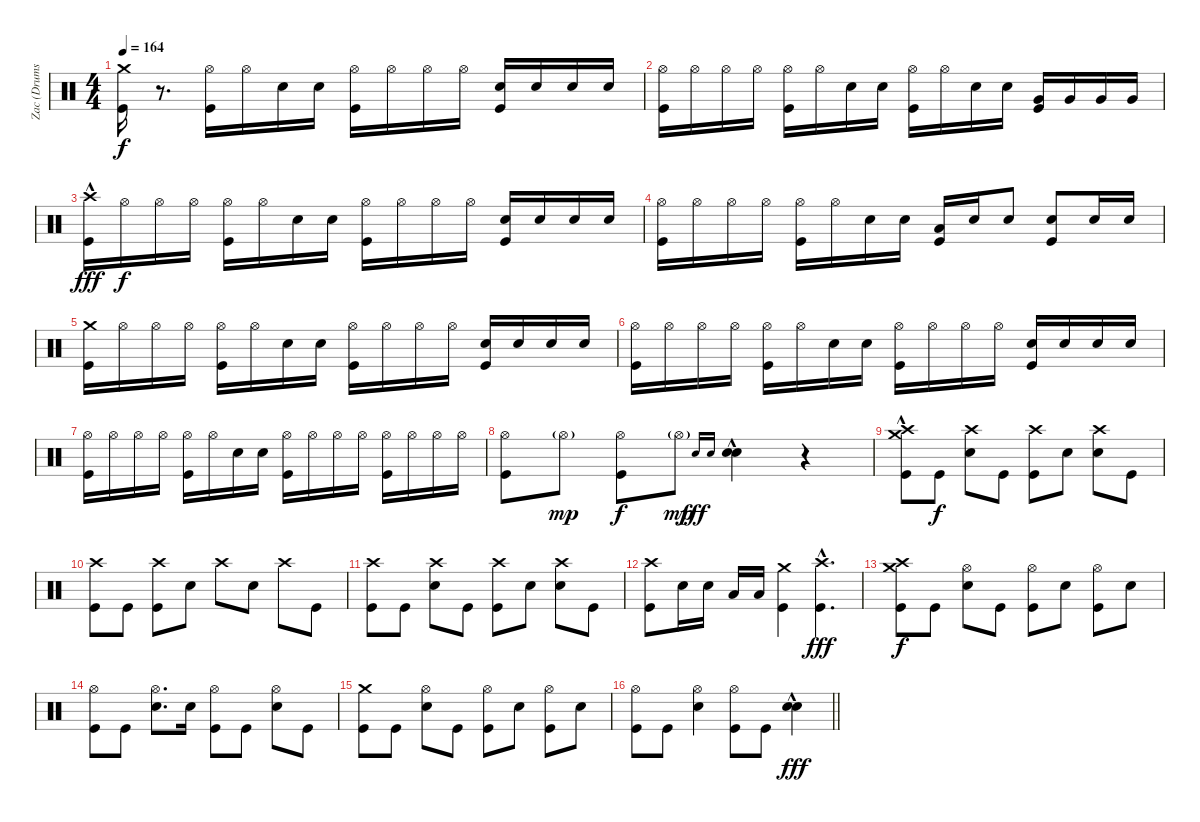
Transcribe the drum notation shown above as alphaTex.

\track ("Zac (Drums)" "Zac (Drums") {instrument percussion}
\staff {score}
\articulation defaults
\ts (4 4)
\tempo 164
\clef neutral
\ks c
("Crash medium (hit)" "Kick (hit)").16{dy f} r.8{d} ("Hi-Hat (open)" "Kick (hit)").16 "Hi-Hat (open)".16 "Electric Snare (hit)".16 "Electric Snare (hit)".16 ("Hi-Hat (open)" "Kick (hit)").16 "Hi-Hat (open)".16 "Hi-Hat (open)".16 "Hi-Hat (open)".16 ("Electric Snare (hit)" "Kick (hit)").16 "Electric Snare (hit)".16 "Electric Snare (hit)".16 "Electric Snare (hit)".16 |
("Hi-Hat (open)" "Kick (hit)").16 "Hi-Hat (open)".16 "Hi-Hat (open)".16 "Hi-Hat (open)".16 ("Hi-Hat (open)" "Kick (hit)").16 "Hi-Hat (open)".16 "Electric Snare (hit)".16 "Electric Snare (hit)".16 ("Hi-Hat (open)" "Kick (hit)").16 "Hi-Hat (open)".16 "Electric Snare (hit)".16 "Electric Snare (hit)".16 ("Very Low Tom (hit)" "Kick (hit)").16 "Very Low Tom (hit)".16 "Very Low Tom (hit)".16 "Very Low Tom (hit)".16 |
("Crash high (hit)"{hac} "Kick (hit)").16{dy fff} "Hi-Hat (open)".16{dy f} "Hi-Hat (open)".16 "Hi-Hat (open)".16 ("Hi-Hat (open)" "Kick (hit)").16 "Hi-Hat (open)".16 "Electric Snare (hit)".16 "Electric Snare (hit)".16 ("Hi-Hat (open)" "Kick (hit)").16 "Hi-Hat (open)".16 "Hi-Hat (open)".16 "Hi-Hat (open)".16 ("Electric Snare (hit)" "Kick (hit)").16 "Electric Snare (hit)".16 "Electric Snare (hit)".16 "Electric Snare (hit)".16 |
("Hi-Hat (open)" "Kick (hit)").16 "Hi-Hat (open)".16 "Hi-Hat (open)".16 "Hi-Hat (open)".16 ("Hi-Hat (open)" "Kick (hit)").16 "Hi-Hat (open)".16 "Electric Snare (hit)".16 "Electric Snare (hit)".16 ("Low Tom (hit)" "Kick (hit)").16 "Electric Snare (hit)".16 "Electric Snare (hit)".8 ("Electric Snare (hit)" "Kick (hit)").8 "Electric Snare (hit)".16 "Electric Snare (hit)".16 |
("Crash medium (hit)" "Kick (hit)").16 "Hi-Hat (open)".16 "Hi-Hat (open)".16 "Hi-Hat (open)".16 ("Hi-Hat (open)" "Kick (hit)").16 "Hi-Hat (open)".16 "Electric Snare (hit)".16 "Electric Snare (hit)".16 ("Hi-Hat (open)" "Kick (hit)").16 "Hi-Hat (open)".16 "Hi-Hat (open)".16 "Hi-Hat (open)".16 ("Electric Snare (hit)" "Kick (hit)").16 "Electric Snare (hit)".16 "Electric Snare (hit)".16 "Electric Snare (hit)".16 |
("Hi-Hat (open)" "Kick (hit)").16 "Hi-Hat (open)".16 "Hi-Hat (open)".16 "Hi-Hat (open)".16 ("Hi-Hat (open)" "Kick (hit)").16 "Hi-Hat (open)".16 "Electric Snare (hit)".16 "Electric Snare (hit)".16 ("Hi-Hat (open)" "Kick (hit)").16 "Hi-Hat (open)".16 "Hi-Hat (open)".16 "Hi-Hat (open)".16 ("Electric Snare (hit)" "Kick (hit)").16 "Electric Snare (hit)".16 "Electric Snare (hit)".16 "Electric Snare (hit)".16 |
("Hi-Hat (open)" "Kick (hit)").16 "Hi-Hat (open)".16 "Hi-Hat (open)".16 "Hi-Hat (open)".16 ("Hi-Hat (open)" "Kick (hit)").16 "Hi-Hat (open)".16 "Electric Snare (hit)".16 "Electric Snare (hit)".16 ("Hi-Hat (open)" "Kick (hit)").16 "Hi-Hat (open)".16 "Hi-Hat (open)".16 "Hi-Hat (open)".16 ("Hi-Hat (open)" "Kick (hit)").16 "Hi-Hat (open)".16 "Hi-Hat (open)".16 "Hi-Hat (open)".16 |
("Hi-Hat (open)" "Kick (hit)").8 "Hi-Hat (open)"{g}.8{dy mp} ("Hi-Hat (open)" "Kick (hit)").8{dy f} "Hi-Hat (open)"{g}.8{dy mp} "Electric Snare (hit)".16{gr onbeat dy fff} "Electric Snare (hit)".16{gr onbeat} ("Electric Snare (hit)"{hac} "Electric Snare (hit)"{hac}).4 r.4 |
("Crash high (hit)"{hac} "Crash medium (hit)" "Kick (hit)").8 "Kick (hit)".8{dy f} ("Crash high (hit)" "Electric Snare (hit)").8 "Kick (hit)".8 ("Crash high (hit)" "Kick (hit)").8 "Electric Snare (hit)".8 ("Crash high (hit)" "Electric Snare (hit)").8 "Kick (hit)".8 |
("Crash high (hit)" "Kick (hit)").8 "Kick (hit)".8 ("Crash high (hit)" "Kick (hit)").8 "Electric Snare (hit)".8 "Crash high (hit)".8 "Electric Snare (hit)".8 "Crash high (hit)".8 "Kick (hit)".8 |
("Crash high (hit)" "Kick (hit)").8 "Kick (hit)".8 ("Crash high (hit)" "Electric Snare (hit)").8 "Kick (hit)".8 ("Crash high (hit)" "Kick (hit)").8 "Electric Snare (hit)".8 ("Crash high (hit)" "Electric Snare (hit)").8 "Kick (hit)".8 |
("Crash high (hit)" "Kick (hit)").8 "Electric Snare (hit)".16 "Electric Snare (hit)".16 "Low Tom (hit)".16 "Low Tom (hit)".16 ("Crash medium (hit)" "Kick (hit)").4 ("Crash high (hit)"{hac} "Kick (hit)").4{d dy fff} |
("Crash high (hit)" "Crash medium (hit)" "Kick (hit)").8{dy f} "Kick (hit)".8 ("Hi-Hat (open)" "Electric Snare (hit)").8 "Kick (hit)".8 ("Hi-Hat (open)" "Kick (hit)").8 "Electric Snare (hit)".8 ("Hi-Hat (open)" "Kick (hit)").8 "Electric Snare (hit)".8 |
("Hi-Hat (open)" "Kick (hit)").8 "Kick (hit)".8 ("Hi-Hat (open)" "Electric Snare (hit)").8{d} "Electric Snare (hit)".16 ("Hi-Hat (open)" "Kick (hit)").8 "Kick (hit)".8 ("Hi-Hat (open)" "Electric Snare (hit)").8 "Kick (hit)".8 |
("Crash medium (hit)" "Kick (hit)").8 "Kick (hit)".8 ("Hi-Hat (open)" "Electric Snare (hit)").8 "Kick (hit)".8 ("Hi-Hat (open)" "Kick (hit)").8 "Electric Snare (hit)".8 ("Hi-Hat (open)" "Kick (hit)").8 "Electric Snare (hit)".8 |
\barLineRight lightlight
("Hi-Hat (open)" "Kick (hit)").8 "Kick (hit)".8 ("Hi-Hat (open)" "Electric Snare (hit)").4 ("Hi-Hat (open)" "Kick (hit)").8 "Kick (hit)".8 ("Electric Snare (hit)"{hac} "Electric Snare (hit)"{hac}).4{dy fff}
